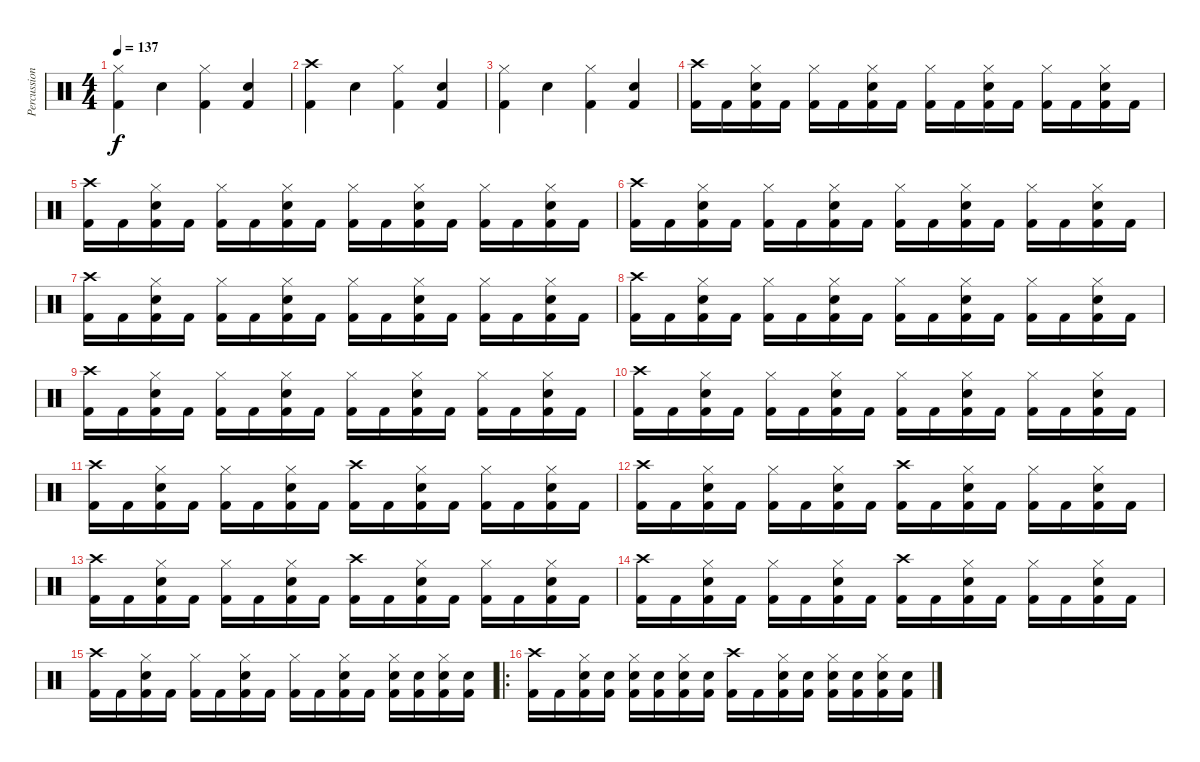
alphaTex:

\track ("Percussion" "Percussion") {instrument percussion}
\staff {score}
\articulation defaults
\ts (4 4)
\tempo 137
\clef neutral
\ks c
("Hi-Hat (closed)" "Kick (hit) 2").4{dy f} "Snare (hit) 2".4 ("Hi-Hat (closed)" "Kick (hit) 2").4 ("Snare (hit) 2" "Kick (hit) 2").4 |
("Crash high (hit)" "Kick (hit) 2").4 "Snare (hit) 2".4 ("Hi-Hat (closed)" "Kick (hit) 2").4 ("Snare (hit) 2" "Kick (hit) 2").4 |
("Hi-Hat (closed)" "Kick (hit) 2").4 "Snare (hit) 2".4 ("Hi-Hat (closed)" "Kick (hit) 2").4 ("Snare (hit) 2" "Kick (hit) 2").4 |
("Crash high (hit)" "Kick (hit) 2").16 "Kick (hit) 2".16 ("Hi-Hat (closed)" "Snare (hit) 2" "Kick (hit) 2").16 "Kick (hit) 2".16 ("Hi-Hat (closed)" "Kick (hit) 2").16 "Kick (hit) 2".16 ("Hi-Hat (closed)" "Snare (hit) 2" "Kick (hit) 2").16 "Kick (hit) 2".16 ("Hi-Hat (closed)" "Kick (hit) 2").16 "Kick (hit) 2".16 ("Hi-Hat (closed)" "Snare (hit) 2" "Kick (hit) 2").16 "Kick (hit) 2".16 ("Hi-Hat (closed)" "Kick (hit) 2").16 "Kick (hit) 2".16 ("Hi-Hat (closed)" "Snare (hit) 2" "Kick (hit) 2").16 "Kick (hit) 2".16 |
("Crash high (hit)" "Kick (hit) 2").16 "Kick (hit) 2".16 ("Hi-Hat (closed)" "Snare (hit) 2" "Kick (hit) 2").16 "Kick (hit) 2".16 ("Hi-Hat (closed)" "Kick (hit) 2").16 "Kick (hit) 2".16 ("Hi-Hat (closed)" "Snare (hit) 2" "Kick (hit) 2").16 "Kick (hit) 2".16 ("Hi-Hat (closed)" "Kick (hit) 2").16 "Kick (hit) 2".16 ("Hi-Hat (closed)" "Snare (hit) 2" "Kick (hit) 2").16 "Kick (hit) 2".16 ("Hi-Hat (closed)" "Kick (hit) 2").16 "Kick (hit) 2".16 ("Hi-Hat (closed)" "Snare (hit) 2" "Kick (hit) 2").16 "Kick (hit) 2".16 |
("Crash high (hit)" "Kick (hit) 2").16 "Kick (hit) 2".16 ("Hi-Hat (closed)" "Snare (hit) 2" "Kick (hit) 2").16 "Kick (hit) 2".16 ("Hi-Hat (closed)" "Kick (hit) 2").16 "Kick (hit) 2".16 ("Hi-Hat (closed)" "Snare (hit) 2" "Kick (hit) 2").16 "Kick (hit) 2".16 ("Hi-Hat (closed)" "Kick (hit) 2").16 "Kick (hit) 2".16 ("Hi-Hat (closed)" "Snare (hit) 2" "Kick (hit) 2").16 "Kick (hit) 2".16 ("Hi-Hat (closed)" "Kick (hit) 2").16 "Kick (hit) 2".16 ("Hi-Hat (closed)" "Snare (hit) 2" "Kick (hit) 2").16 "Kick (hit) 2".16 |
("Crash high (hit)" "Kick (hit) 2").16 "Kick (hit) 2".16 ("Hi-Hat (closed)" "Snare (hit) 2" "Kick (hit) 2").16 "Kick (hit) 2".16 ("Hi-Hat (closed)" "Kick (hit) 2").16 "Kick (hit) 2".16 ("Hi-Hat (closed)" "Snare (hit) 2" "Kick (hit) 2").16 "Kick (hit) 2".16 ("Hi-Hat (closed)" "Kick (hit) 2").16 "Kick (hit) 2".16 ("Hi-Hat (closed)" "Snare (hit) 2" "Kick (hit) 2").16 "Kick (hit) 2".16 ("Hi-Hat (closed)" "Kick (hit) 2").16 "Kick (hit) 2".16 ("Hi-Hat (closed)" "Snare (hit) 2" "Kick (hit) 2").16 "Kick (hit) 2".16 |
("Crash high (hit)" "Kick (hit) 2").16 "Kick (hit) 2".16 ("Hi-Hat (closed)" "Snare (hit) 2" "Kick (hit) 2").16 "Kick (hit) 2".16 ("Hi-Hat (closed)" "Kick (hit) 2").16 "Kick (hit) 2".16 ("Hi-Hat (closed)" "Snare (hit) 2" "Kick (hit) 2").16 "Kick (hit) 2".16 ("Hi-Hat (closed)" "Kick (hit) 2").16 "Kick (hit) 2".16 ("Hi-Hat (closed)" "Snare (hit) 2" "Kick (hit) 2").16 "Kick (hit) 2".16 ("Hi-Hat (closed)" "Kick (hit) 2").16 "Kick (hit) 2".16 ("Hi-Hat (closed)" "Snare (hit) 2" "Kick (hit) 2").16 "Kick (hit) 2".16 |
("Crash high (hit)" "Kick (hit) 2").16 "Kick (hit) 2".16 ("Hi-Hat (closed)" "Snare (hit) 2" "Kick (hit) 2").16 "Kick (hit) 2".16 ("Hi-Hat (closed)" "Kick (hit) 2").16 "Kick (hit) 2".16 ("Hi-Hat (closed)" "Snare (hit) 2" "Kick (hit) 2").16 "Kick (hit) 2".16 ("Hi-Hat (closed)" "Kick (hit) 2").16 "Kick (hit) 2".16 ("Hi-Hat (closed)" "Snare (hit) 2" "Kick (hit) 2").16 "Kick (hit) 2".16 ("Hi-Hat (closed)" "Kick (hit) 2").16 "Kick (hit) 2".16 ("Hi-Hat (closed)" "Snare (hit) 2" "Kick (hit) 2").16 "Kick (hit) 2".16 |
("Crash high (hit)" "Kick (hit) 2").16 "Kick (hit) 2".16 ("Hi-Hat (closed)" "Snare (hit) 2" "Kick (hit) 2").16 "Kick (hit) 2".16 ("Hi-Hat (closed)" "Kick (hit) 2").16 "Kick (hit) 2".16 ("Hi-Hat (closed)" "Snare (hit) 2" "Kick (hit) 2").16 "Kick (hit) 2".16 ("Hi-Hat (closed)" "Kick (hit) 2").16 "Kick (hit) 2".16 ("Hi-Hat (closed)" "Snare (hit) 2" "Kick (hit) 2").16 "Kick (hit) 2".16 ("Hi-Hat (closed)" "Kick (hit) 2").16 "Kick (hit) 2".16 ("Hi-Hat (closed)" "Snare (hit) 2" "Kick (hit) 2").16 "Kick (hit) 2".16 |
("Crash high (hit)" "Kick (hit) 2").16 "Kick (hit) 2".16 ("Hi-Hat (closed)" "Snare (hit) 2" "Kick (hit) 2").16 "Kick (hit) 2".16 ("Hi-Hat (closed)" "Kick (hit) 2").16 "Kick (hit) 2".16 ("Hi-Hat (closed)" "Snare (hit) 2" "Kick (hit) 2").16 "Kick (hit) 2".16 ("Crash high (hit)" "Kick (hit) 2").16 "Kick (hit) 2".16 ("Hi-Hat (closed)" "Snare (hit) 2" "Kick (hit) 2").16 "Kick (hit) 2".16 ("Hi-Hat (closed)" "Kick (hit) 2").16 "Kick (hit) 2".16 ("Hi-Hat (closed)" "Snare (hit) 2" "Kick (hit) 2").16 "Kick (hit) 2".16 |
("Crash high (hit)" "Kick (hit) 2").16 "Kick (hit) 2".16 ("Hi-Hat (closed)" "Snare (hit) 2" "Kick (hit) 2").16 "Kick (hit) 2".16 ("Hi-Hat (closed)" "Kick (hit) 2").16 "Kick (hit) 2".16 ("Hi-Hat (closed)" "Snare (hit) 2" "Kick (hit) 2").16 "Kick (hit) 2".16 ("Crash high (hit)" "Kick (hit) 2").16 "Kick (hit) 2".16 ("Hi-Hat (closed)" "Snare (hit) 2" "Kick (hit) 2").16 "Kick (hit) 2".16 ("Hi-Hat (closed)" "Kick (hit) 2").16 "Kick (hit) 2".16 ("Hi-Hat (closed)" "Snare (hit) 2" "Kick (hit) 2").16 "Kick (hit) 2".16 |
("Crash high (hit)" "Kick (hit) 2").16 "Kick (hit) 2".16 ("Hi-Hat (closed)" "Snare (hit) 2" "Kick (hit) 2").16 "Kick (hit) 2".16 ("Hi-Hat (closed)" "Kick (hit) 2").16 "Kick (hit) 2".16 ("Hi-Hat (closed)" "Snare (hit) 2" "Kick (hit) 2").16 "Kick (hit) 2".16 ("Crash high (hit)" "Kick (hit) 2").16 "Kick (hit) 2".16 ("Hi-Hat (closed)" "Snare (hit) 2" "Kick (hit) 2").16 "Kick (hit) 2".16 ("Hi-Hat (closed)" "Kick (hit) 2").16 "Kick (hit) 2".16 ("Hi-Hat (closed)" "Snare (hit) 2" "Kick (hit) 2").16 "Kick (hit) 2".16 |
("Crash high (hit)" "Kick (hit) 2").16 "Kick (hit) 2".16 ("Hi-Hat (closed)" "Snare (hit) 2" "Kick (hit) 2").16 "Kick (hit) 2".16 ("Hi-Hat (closed)" "Kick (hit) 2").16 "Kick (hit) 2".16 ("Hi-Hat (closed)" "Snare (hit) 2" "Kick (hit) 2").16 "Kick (hit) 2".16 ("Crash high (hit)" "Kick (hit) 2").16 "Kick (hit) 2".16 ("Hi-Hat (closed)" "Snare (hit) 2" "Kick (hit) 2").16 "Kick (hit) 2".16 ("Hi-Hat (closed)" "Kick (hit) 2").16 "Kick (hit) 2".16 ("Hi-Hat (closed)" "Snare (hit) 2" "Kick (hit) 2").16 "Kick (hit) 2".16 |
("Crash high (hit)" "Kick (hit) 2").16 "Kick (hit) 2".16 ("Hi-Hat (closed)" "Snare (hit) 2" "Kick (hit) 2").16 "Kick (hit) 2".16 ("Hi-Hat (closed)" "Kick (hit) 2").16 "Kick (hit) 2".16 ("Hi-Hat (closed)" "Snare (hit) 2" "Kick (hit) 2").16 "Kick (hit) 2".16 ("Hi-Hat (closed)" "Kick (hit) 2").16 "Kick (hit) 2".16 ("Hi-Hat (closed)" "Snare (hit) 2" "Kick (hit) 2").16 "Kick (hit) 2".16 ("Hi-Hat (closed)" "Snare (hit) 2" "Kick (hit) 2").16 ("Snare (hit) 2" "Kick (hit) 2").16 ("Hi-Hat (closed)" "Snare (hit) 2" "Kick (hit) 2").16 ("Snare (hit) 2" "Kick (hit) 2").16 |
\ro
("Crash high (hit)" "Kick (hit) 2").16 "Kick (hit) 2".16 ("Hi-Hat (closed)" "Snare (hit) 2" "Kick (hit) 2").16 ("Snare (hit) 2" "Kick (hit) 2").16 ("Hi-Hat (closed)" "Snare (hit) 2" "Kick (hit) 2").16 ("Snare (hit) 2" "Kick (hit) 2").16 ("Hi-Hat (closed)" "Snare (hit) 2" "Kick (hit) 2").16 ("Snare (hit) 2" "Kick (hit) 2").16 ("Crash high (hit)" "Kick (hit) 2").16 "Kick (hit) 2".16 ("Hi-Hat (closed)" "Snare (hit) 2" "Kick (hit) 2").16 ("Snare (hit) 2" "Kick (hit) 2").16 ("Hi-Hat (closed)" "Snare (hit) 2" "Kick (hit) 2").16 ("Snare (hit) 2" "Kick (hit) 2").16 ("Hi-Hat (closed)" "Snare (hit) 2" "Kick (hit) 2").16 ("Snare (hit) 2" "Kick (hit) 2").16
